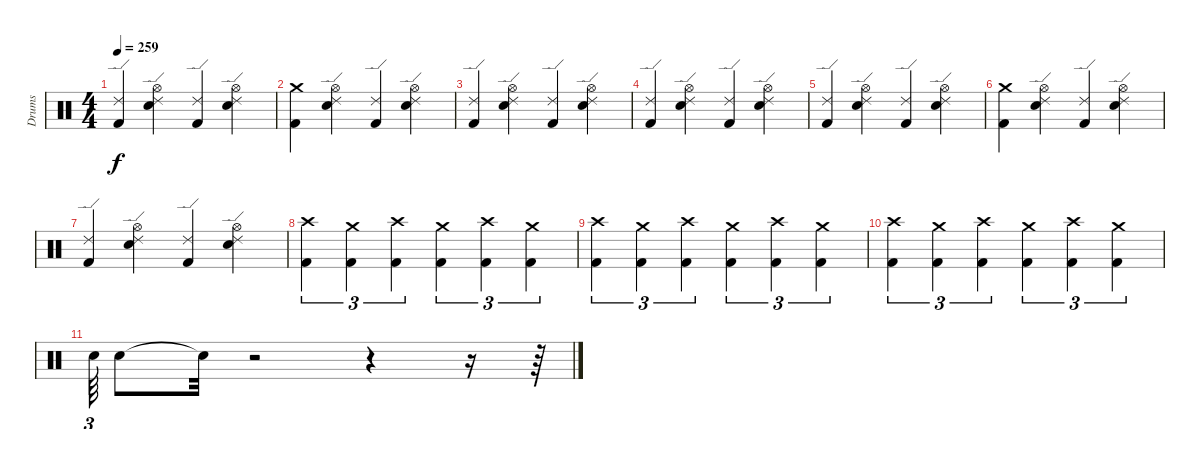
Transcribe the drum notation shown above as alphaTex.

\track ("Drums" "Drums") {instrument percussion}
\staff {score}
\articulation defaults
\ts (4 4)
\tempo 259
\clef neutral
\ks c
("Kick (hit) 2" "Ride (edge) 2").4{dy f} ("Electric Snare (hit)" "Ride (edge) 2" "Hi-Hat (open)").4 ("Kick (hit) 2" "Ride (edge) 2").4 ("Electric Snare (hit)" "Ride (edge) 2" "Hi-Hat (open)").4 |
("Kick (hit) 2" "Crash medium (hit)").4 ("Electric Snare (hit)" "Ride (edge) 2" "Hi-Hat (open)").4 ("Kick (hit) 2" "Ride (edge) 2").4 ("Electric Snare (hit)" "Ride (edge) 2" "Hi-Hat (open)").4 |
("Kick (hit) 2" "Ride (edge) 2").4 ("Electric Snare (hit)" "Ride (edge) 2" "Hi-Hat (open)").4 ("Kick (hit) 2" "Ride (edge) 2").4 ("Electric Snare (hit)" "Ride (edge) 2" "Hi-Hat (open)").4 |
("Kick (hit) 2" "Ride (edge) 2").4 ("Electric Snare (hit)" "Ride (edge) 2" "Hi-Hat (open)").4 ("Kick (hit) 2" "Ride (edge) 2").4 ("Electric Snare (hit)" "Ride (edge) 2" "Hi-Hat (open)").4 |
("Kick (hit) 2" "Ride (edge) 2").4 ("Electric Snare (hit)" "Ride (edge) 2" "Hi-Hat (open)").4 ("Kick (hit) 2" "Ride (edge) 2").4 ("Electric Snare (hit)" "Ride (edge) 2" "Hi-Hat (open)").4 |
("Kick (hit) 2" "Crash medium (hit)").4 ("Electric Snare (hit)" "Ride (edge) 2" "Hi-Hat (open)").4 ("Kick (hit) 2" "Ride (edge) 2").4 ("Electric Snare (hit)" "Ride (edge) 2" "Hi-Hat (open)").4 |
("Kick (hit) 2" "Ride (edge) 2").4 ("Electric Snare (hit)" "Ride (edge) 2" "Hi-Hat (open)").4 ("Kick (hit) 2" "Ride (edge) 2").4 ("Electric Snare (hit)" "Ride (edge) 2" "Hi-Hat (open)").4 |
("Kick (hit) 2" "Crash high (hit)").4{tu (3 2)} ("Kick (hit) 2" "Crash medium (hit)").4{tu (3 2)} ("Kick (hit) 2" "Crash high (hit)").4{tu (3 2)} ("Kick (hit) 2" "Crash medium (hit)").4{tu (3 2)} ("Kick (hit) 2" "Crash high (hit)").4{tu (3 2)} ("Kick (hit) 2" "Crash medium (hit)").4{tu (3 2)} |
("Kick (hit) 2" "Crash high (hit)").4{tu (3 2)} ("Kick (hit) 2" "Crash medium (hit)").4{tu (3 2)} ("Kick (hit) 2" "Crash high (hit)").4{tu (3 2)} ("Kick (hit) 2" "Crash medium (hit)").4{tu (3 2)} ("Kick (hit) 2" "Crash high (hit)").4{tu (3 2)} ("Kick (hit) 2" "Crash medium (hit)").4{tu (3 2)} |
("Kick (hit) 2" "Crash high (hit)").4{tu (3 2)} ("Kick (hit) 2" "Crash medium (hit)").4{tu (3 2)} ("Kick (hit) 2" "Crash high (hit)").4{tu (3 2)} ("Kick (hit) 2" "Crash medium (hit)").4{tu (3 2)} ("Kick (hit) 2" "Crash high (hit)").4{tu (3 2)} ("Kick (hit) 2" "Crash medium (hit)").4{tu (3 2)} |
"Electric Snare (hit)".64{tu (3 2)} "Electric Snare (hit)".8 "Snare (hit)"{t}.32 r.2 r.4 r.16 r.64
